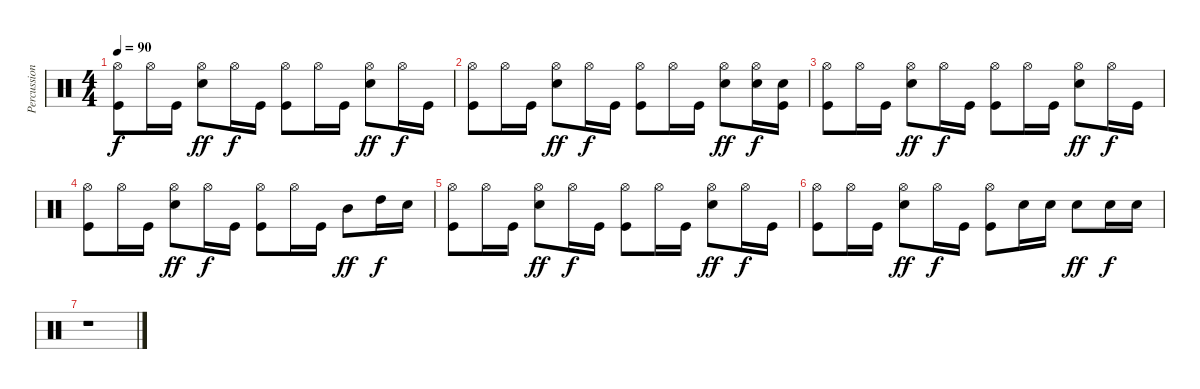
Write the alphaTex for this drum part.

\track ("Percussioni" "Percussion") {instrument percussion}
\staff {score}
\articulation defaults
\ts (4 4)
\tempo 90
\clef neutral
\ks c
("Hi-Hat (open)" "Kick (hit)").8{dy f} "Hi-Hat (open)".16 "Kick (hit)".16 ("Hi-Hat (open)" "Electric Snare (hit)").8{dy ff} "Hi-Hat (open)".16{dy f} "Kick (hit)".16 ("Hi-Hat (open)" "Kick (hit)").8 "Hi-Hat (open)".16 "Kick (hit)".16 ("Hi-Hat (open)" "Electric Snare (hit)").8{dy ff} "Hi-Hat (open)".16{dy f} "Kick (hit)".16 |
("Hi-Hat (open)" "Kick (hit)").8 "Hi-Hat (open)".16 "Kick (hit)".16 ("Hi-Hat (open)" "Electric Snare (hit)").8{dy ff} "Hi-Hat (open)".16{dy f} "Kick (hit)".16 ("Hi-Hat (open)" "Kick (hit)").8 "Hi-Hat (open)".16 "Kick (hit)".16 ("Hi-Hat (open)" "Electric Snare (hit)").8{dy ff} ("Hi-Hat (open)" "Electric Snare (hit)").16{dy f} ("Electric Snare (hit)" "Kick (hit)").16 |
("Hi-Hat (open)" "Kick (hit)").8 "Hi-Hat (open)".16 "Kick (hit)".16 ("Hi-Hat (open)" "Electric Snare (hit)").8{dy ff} "Hi-Hat (open)".16{dy f} "Kick (hit)".16 ("Hi-Hat (open)" "Kick (hit)").8 "Hi-Hat (open)".16 "Kick (hit)".16 ("Hi-Hat (open)" "Electric Snare (hit)").8{dy ff} "Hi-Hat (open)".16{dy f} "Kick (hit)".16 |
("Hi-Hat (open)" "Kick (hit)").8 "Hi-Hat (open)".16 "Kick (hit)".16 ("Hi-Hat (open)" "Electric Snare (hit)").8{dy ff} "Hi-Hat (open)".16{dy f} "Kick (hit)".16 ("Hi-Hat (open)" "Kick (hit)").8 "Hi-Hat (open)".16 "Kick (hit)".16 "Mid Tom (hit)".8{dy ff} "High Tom (hit)".16{dy f} "Electric Snare (hit)".16 |
("Hi-Hat (open)" "Kick (hit)").8 "Hi-Hat (open)".16 "Kick (hit)".16 ("Hi-Hat (open)" "Electric Snare (hit)").8{dy ff} "Hi-Hat (open)".16{dy f} "Kick (hit)".16 ("Hi-Hat (open)" "Kick (hit)").8 "Hi-Hat (open)".16 "Kick (hit)".16 ("Hi-Hat (open)" "Electric Snare (hit)").8{dy ff} "Hi-Hat (open)".16{dy f} "Kick (hit)".16 |
("Hi-Hat (open)" "Kick (hit)").8 "Hi-Hat (open)".16 "Kick (hit)".16 ("Hi-Hat (open)" "Electric Snare (hit)").8{dy ff} "Hi-Hat (open)".16{dy f} "Kick (hit)".16 ("Hi-Hat (open)" "Kick (hit)").8 "Electric Snare (hit)".16 "Electric Snare (hit)".16 "Electric Snare (hit)".8{dy ff} "Electric Snare (hit)".16{dy f} "Electric Snare (hit)".16 |
r.1
